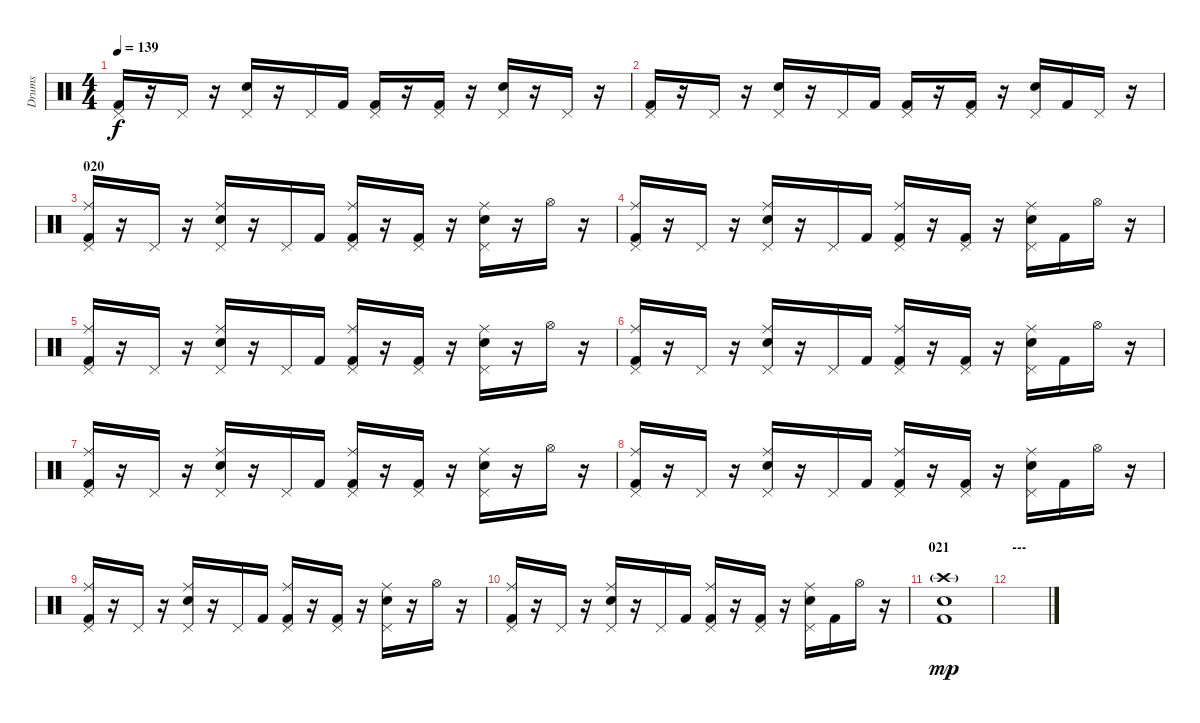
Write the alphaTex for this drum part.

\track ("Drums" "Drums") {instrument percussion}
\staff {score}
\articulation defaults
\ts (4 4)
\tempo 139
\clef neutral
\ks c
("Kick (hit) 2" "Pedal Hi-Hat (hit)").16{dy f} r.16 "Pedal Hi-Hat (hit)".16 r.16 ("Electric Snare (hit)" "Pedal Hi-Hat (hit)").16 r.16 "Pedal Hi-Hat (hit)".16 "Kick (hit) 2".16 ("Kick (hit) 2" "Pedal Hi-Hat (hit)").16 r.16 ("Kick (hit) 2" "Pedal Hi-Hat (hit)").16 r.16 ("Electric Snare (hit)" "Pedal Hi-Hat (hit)").16 r.16 "Pedal Hi-Hat (hit)".16 r.16 |
("Kick (hit) 2" "Pedal Hi-Hat (hit)").16 r.16 "Pedal Hi-Hat (hit)".16 r.16 ("Electric Snare (hit)" "Pedal Hi-Hat (hit)").16 r.16 "Pedal Hi-Hat (hit)".16 "Kick (hit) 2".16 ("Kick (hit) 2" "Pedal Hi-Hat (hit)").16 r.16 ("Kick (hit) 2" "Pedal Hi-Hat (hit)").16 r.16 ("Electric Snare (hit)" "Pedal Hi-Hat (hit)").16 "Kick (hit) 2".16 "Pedal Hi-Hat (hit)".16 r.16 |
\section ("" "020")
("Kick (hit) 2" "Ride (middle)" "Pedal Hi-Hat (hit)").16 r.16 "Pedal Hi-Hat (hit)".16 r.16 ("Electric Snare (hit)" "Ride (middle)" "Pedal Hi-Hat (hit)").16 r.16 "Pedal Hi-Hat (hit)".16 "Kick (hit) 2".16 ("Kick (hit) 2" "Ride (middle)" "Pedal Hi-Hat (hit)").16 r.16 ("Kick (hit) 2" "Pedal Hi-Hat (hit)").16 r.16 ("Electric Snare (hit)" "Ride (middle)" "Pedal Hi-Hat (hit)").16 r.16 "Hi-Hat (open)".16 r.16 |
("Kick (hit) 2" "Ride (middle)" "Pedal Hi-Hat (hit)").16 r.16 "Pedal Hi-Hat (hit)".16 r.16 ("Electric Snare (hit)" "Ride (middle)" "Pedal Hi-Hat (hit)").16 r.16 "Pedal Hi-Hat (hit)".16 "Kick (hit) 2".16 ("Kick (hit) 2" "Ride (middle)" "Pedal Hi-Hat (hit)").16 r.16 ("Kick (hit) 2" "Pedal Hi-Hat (hit)").16 r.16 ("Electric Snare (hit)" "Ride (middle)" "Pedal Hi-Hat (hit)").16 "Kick (hit) 2".16 "Hi-Hat (open)".16 r.16 |
("Kick (hit) 2" "Ride (middle)" "Pedal Hi-Hat (hit)").16 r.16 "Pedal Hi-Hat (hit)".16 r.16 ("Electric Snare (hit)" "Ride (middle)" "Pedal Hi-Hat (hit)").16 r.16 "Pedal Hi-Hat (hit)".16 "Kick (hit) 2".16 ("Kick (hit) 2" "Ride (middle)" "Pedal Hi-Hat (hit)").16 r.16 ("Kick (hit) 2" "Pedal Hi-Hat (hit)").16 r.16 ("Electric Snare (hit)" "Ride (middle)" "Pedal Hi-Hat (hit)").16 r.16 "Hi-Hat (open)".16 r.16 |
("Kick (hit) 2" "Ride (middle)" "Pedal Hi-Hat (hit)").16 r.16 "Pedal Hi-Hat (hit)".16 r.16 ("Electric Snare (hit)" "Ride (middle)" "Pedal Hi-Hat (hit)").16 r.16 "Pedal Hi-Hat (hit)".16 "Kick (hit) 2".16 ("Kick (hit) 2" "Ride (middle)" "Pedal Hi-Hat (hit)").16 r.16 ("Kick (hit) 2" "Pedal Hi-Hat (hit)").16 r.16 ("Electric Snare (hit)" "Ride (middle)" "Pedal Hi-Hat (hit)").16 "Kick (hit) 2".16 "Hi-Hat (open)".16 r.16 |
("Kick (hit) 2" "Ride (middle)" "Pedal Hi-Hat (hit)").16 r.16 "Pedal Hi-Hat (hit)".16 r.16 ("Electric Snare (hit)" "Ride (middle)" "Pedal Hi-Hat (hit)").16 r.16 "Pedal Hi-Hat (hit)".16 "Kick (hit) 2".16 ("Kick (hit) 2" "Ride (middle)" "Pedal Hi-Hat (hit)").16 r.16 ("Kick (hit) 2" "Pedal Hi-Hat (hit)").16 r.16 ("Electric Snare (hit)" "Ride (middle)" "Pedal Hi-Hat (hit)").16 r.16 "Hi-Hat (open)".16 r.16 |
("Kick (hit) 2" "Ride (middle)" "Pedal Hi-Hat (hit)").16 r.16 "Pedal Hi-Hat (hit)".16 r.16 ("Electric Snare (hit)" "Ride (middle)" "Pedal Hi-Hat (hit)").16 r.16 "Pedal Hi-Hat (hit)".16 "Kick (hit) 2".16 ("Kick (hit) 2" "Ride (middle)" "Pedal Hi-Hat (hit)").16 r.16 ("Kick (hit) 2" "Pedal Hi-Hat (hit)").16 r.16 ("Electric Snare (hit)" "Ride (middle)" "Pedal Hi-Hat (hit)").16 "Kick (hit) 2".16 "Hi-Hat (open)".16 r.16 |
("Kick (hit) 2" "Ride (middle)" "Pedal Hi-Hat (hit)").16 r.16 "Pedal Hi-Hat (hit)".16 r.16 ("Electric Snare (hit)" "Ride (middle)" "Pedal Hi-Hat (hit)").16 r.16 "Pedal Hi-Hat (hit)".16 "Kick (hit) 2".16 ("Kick (hit) 2" "Ride (middle)" "Pedal Hi-Hat (hit)").16 r.16 ("Kick (hit) 2" "Pedal Hi-Hat (hit)").16 r.16 ("Electric Snare (hit)" "Ride (middle)" "Pedal Hi-Hat (hit)").16 r.16 "Hi-Hat (open)".16 r.16 |
("Kick (hit) 2" "Ride (middle)" "Pedal Hi-Hat (hit)").16 r.16 "Pedal Hi-Hat (hit)".16 r.16 ("Electric Snare (hit)" "Ride (middle)" "Pedal Hi-Hat (hit)").16 r.16 "Pedal Hi-Hat (hit)".16 "Kick (hit) 2".16 ("Kick (hit) 2" "Ride (middle)" "Pedal Hi-Hat (hit)").16 r.16 ("Kick (hit) 2" "Pedal Hi-Hat (hit)").16 r.16 ("Electric Snare (hit)" "Ride (middle)" "Pedal Hi-Hat (hit)").16 "Kick (hit) 2".16 "Hi-Hat (open)".16 r.16 |
\section ("" "021")
("Electric Snare (hit)" "Kick (hit) 2" "Crash high (hit)"{g}).1{dy mp} |
\section ("" "---")
